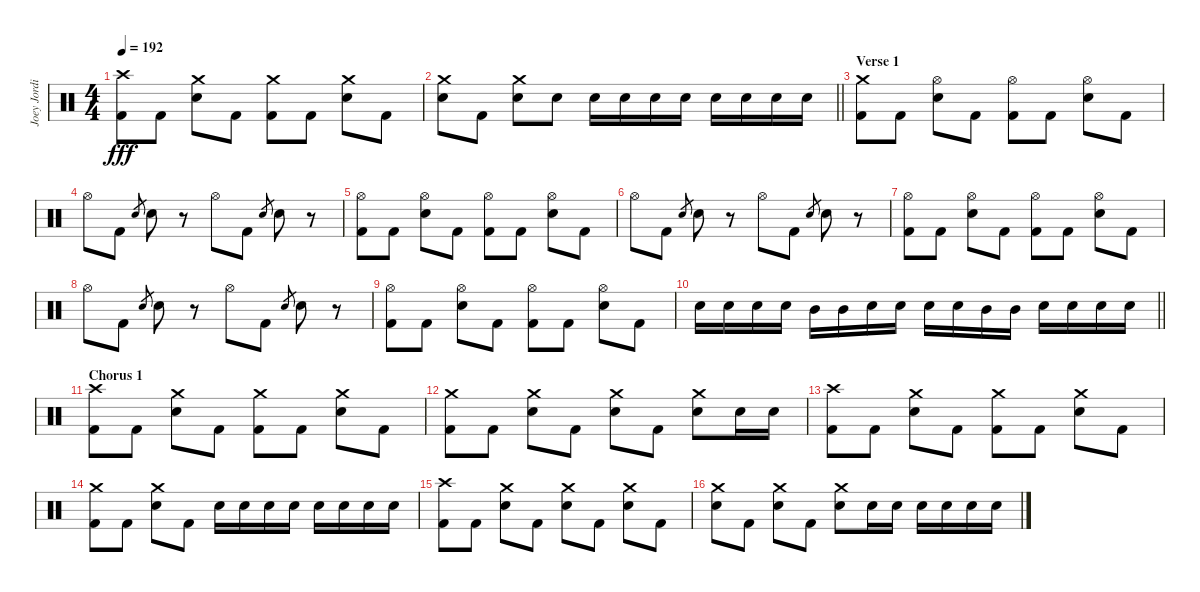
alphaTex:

\track ("Joey Jordison" "Joey Jordi") {instrument percussion}
\staff {score}
\articulation defaults
\ts (4 4)
\tempo 192
\clef neutral
\ks c
("Crash high (hit)" "Kick (hit) 2").8{dy fff} "Kick (hit) 2".8 ("Crash medium (hit)" "Electric Snare (hit)").8 "Kick (hit) 2".8 ("Crash medium (hit)" "Kick (hit) 2").8 "Kick (hit) 2".8 ("Crash medium (hit)" "Electric Snare (hit)").8 "Kick (hit) 2".8 |
\barLineRight lightlight
("Crash medium (hit)" "Electric Snare (hit)").8 "Kick (hit) 2".8 ("Crash medium (hit)" "Electric Snare (hit)").8 "Electric Snare (hit)".8 "Electric Snare (hit)".16 "Electric Snare (hit)".16 "Electric Snare (hit)".16 "Electric Snare (hit)".16 "Electric Snare (hit)".16 "Electric Snare (hit)".16 "Electric Snare (hit)".16 "Electric Snare (hit)".16 |
\section ("" "Verse 1")
("Crash medium (hit)" "Kick (hit) 2").8 "Kick (hit) 2".8 ("Hi-Hat (open)" "Electric Snare (hit)").8 "Kick (hit) 2".8 ("Hi-Hat (open)" "Kick (hit) 2").8 "Kick (hit) 2".8 ("Hi-Hat (open)" "Electric Snare (hit)").8 "Kick (hit) 2".8 |
"Hi-Hat (open)".8 "Kick (hit) 2".8 "Electric Snare (hit)".8{gr} "Electric Snare (hit)".8 r.8 "Hi-Hat (open)".8 "Kick (hit) 2".8 "Electric Snare (hit)".8{gr} "Electric Snare (hit)".8 r.8 |
("Hi-Hat (open)" "Kick (hit) 2").8 "Kick (hit) 2".8 ("Hi-Hat (open)" "Electric Snare (hit)").8 "Kick (hit) 2".8 ("Hi-Hat (open)" "Kick (hit) 2").8 "Kick (hit) 2".8 ("Hi-Hat (open)" "Electric Snare (hit)").8 "Kick (hit) 2".8 |
"Hi-Hat (open)".8 "Kick (hit) 2".8 "Electric Snare (hit)".8{gr} "Electric Snare (hit)".8 r.8 "Hi-Hat (open)".8 "Kick (hit) 2".8 "Electric Snare (hit)".8{gr} "Electric Snare (hit)".8 r.8 |
("Hi-Hat (open)" "Kick (hit) 2").8 "Kick (hit) 2".8 ("Hi-Hat (open)" "Electric Snare (hit)").8 "Kick (hit) 2".8 ("Hi-Hat (open)" "Kick (hit) 2").8 "Kick (hit) 2".8 ("Hi-Hat (open)" "Electric Snare (hit)").8 "Kick (hit) 2".8 |
"Hi-Hat (open)".8 "Kick (hit) 2".8 "Electric Snare (hit)".8{gr} "Electric Snare (hit)".8 r.8 "Hi-Hat (open)".8 "Kick (hit) 2".8 "Electric Snare (hit)".8{gr} "Electric Snare (hit)".8 r.8 |
("Hi-Hat (open)" "Kick (hit) 2").8 "Kick (hit) 2".8 ("Hi-Hat (open)" "Electric Snare (hit)").8 "Kick (hit) 2".8 ("Hi-Hat (open)" "Kick (hit) 2").8 "Kick (hit) 2".8 ("Hi-Hat (open)" "Electric Snare (hit)").8 "Kick (hit) 2".8 |
\barLineRight lightlight "Electric Snare (hit)".16 "Electric Snare (hit)".16 "Electric Snare (hit)".16 "Electric Snare (hit)".16 "Mid Tom (hit)".16 "Mid Tom (hit)".16 "Electric Snare (hit)".16 "Electric Snare (hit)".16 "Electric Snare (hit)".16 "Electric Snare (hit)".16 "Mid Tom (hit)".16 "Mid Tom (hit)".16 "Electric Snare (hit)".16 "Electric Snare (hit)".16 "Electric Snare (hit)".16 "Electric Snare (hit)".16
|
\section ("" "Chorus 1")
("Crash high (hit)" "Kick (hit) 2").8 "Kick (hit) 2".8 ("Crash medium (hit)" "Electric Snare (hit)").8 "Kick (hit) 2".8 ("Crash medium (hit)" "Kick (hit) 2").8 "Kick (hit) 2".8 ("Crash medium (hit)" "Electric Snare (hit)").8 "Kick (hit) 2".8 |
("Crash medium (hit)" "Kick (hit) 2").8 "Kick (hit) 2".8 ("Crash medium (hit)" "Electric Snare (hit)").8 "Kick (hit) 2".8 ("Crash medium (hit)" "Electric Snare (hit)").8 "Kick (hit) 2".8 ("Crash medium (hit)" "Electric Snare (hit)").8 "Electric Snare (hit)".16 "Electric Snare (hit)".16 |
("Crash high (hit)" "Kick (hit) 2").8 "Kick (hit) 2".8 ("Crash medium (hit)" "Electric Snare (hit)").8 "Kick (hit) 2".8 ("Crash medium (hit)" "Kick (hit) 2").8 "Kick (hit) 2".8 ("Crash medium (hit)" "Electric Snare (hit)").8 "Kick (hit) 2".8 |
("Crash medium (hit)" "Kick (hit) 2").8 "Kick (hit) 2".8 ("Crash medium (hit)" "Electric Snare (hit)").8 "Kick (hit) 2".8 "Electric Snare (hit)".16 "Electric Snare (hit)".16 "Electric Snare (hit)".16 "Electric Snare (hit)".16 "Electric Snare (hit)".16 "Electric Snare (hit)".16 "Electric Snare (hit)".16 "Electric Snare (hit)".16 |
("Crash high (hit)" "Kick (hit) 2").8 "Kick (hit) 2".8 ("Crash medium (hit)" "Electric Snare (hit)").8 "Kick (hit) 2".8 ("Crash medium (hit)" "Electric Snare (hit)").8 "Kick (hit) 2".8 ("Crash medium (hit)" "Electric Snare (hit)").8 "Kick (hit) 2".8 |
("Crash medium (hit)" "Electric Snare (hit)").8 "Kick (hit) 2".8 ("Crash medium (hit)" "Electric Snare (hit)").8 "Kick (hit) 2".8 ("Crash medium (hit)" "Electric Snare (hit)").8 "Electric Snare (hit)".16 "Electric Snare (hit)".16 "Electric Snare (hit)".16 "Electric Snare (hit)".16 "Electric Snare (hit)".16 "Electric Snare (hit)".16
